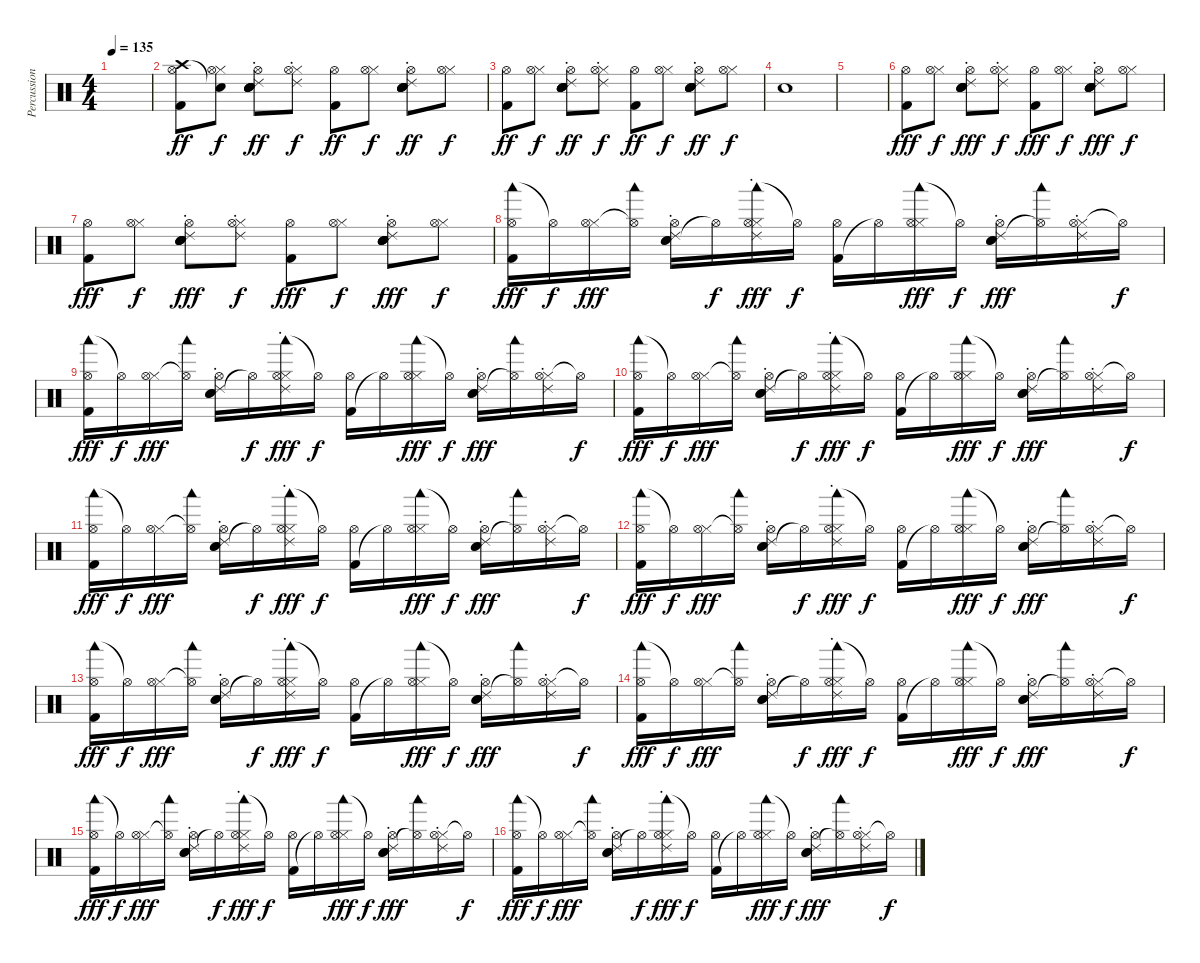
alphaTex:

\track ("Percussion" "Percussion") {instrument percussion}
\staff {score}
\articulation defaults
\ts (4 4)
\tempo 135
\clef neutral
\ks c
|
("Kick (hit) 2" "Crash high (hit)" "Hi-Hat (open)").8{dy ff} ("Hi-Hat (closed)" "Snare (hit)"{t} "Hi-Hat (open)").8{dy f} ("Snare (hit) 2" "Ride (choke) 2" "Hand Clap (hit)" "Hand Clap (hit)" "Hand Clap (hit)" "Hi-Hat (open)").8{dy ff} ("Hi-Hat (closed)" "Ride (choke) 2" "Hi-Hat (open)").8{dy f} ("Kick (hit) 2" "Hi-Hat (open)").8{dy ff} ("Hi-Hat (closed)" "Hi-Hat (open)").8{dy f} ("Snare (hit) 2" "Ride (choke) 2" "Hand Clap (hit)" "Hand Clap (hit)" "Hand Clap (hit)" "Hi-Hat (open)").8{dy ff} ("Hi-Hat (closed)" "Hi-Hat (open)").8{dy f} |
("Kick (hit) 2" "Hi-Hat (open)").8{dy ff} ("Hi-Hat (closed)" "Hi-Hat (open)").8{dy f} ("Snare (hit) 2" "Ride (choke) 2" "Hand Clap (hit)" "Hand Clap (hit)" "Hand Clap (hit)" "Hi-Hat (open)").8{dy ff} ("Hi-Hat (closed)" "Ride (choke) 2" "Hi-Hat (open)").8{dy f} ("Kick (hit) 2" "Hi-Hat (open)").8{dy ff} ("Hi-Hat (closed)" "Hi-Hat (open)").8{dy f} ("Snare (hit) 2" "Ride (choke) 2" "Hand Clap (hit)" "Hand Clap (hit)" "Hand Clap (hit)" "Hi-Hat (open)").8{dy ff} ("Hi-Hat (closed)" "Hi-Hat (open)").8{dy f} |
"Snare (hit) 2".1 |
|
("Kick (hit) 2" "Hi-Hat (open)").8{dy fff} ("Hi-Hat (closed)" "Hi-Hat (open)").8{dy f} ("Snare (hit) 2" "Ride (choke) 2" "Hand Clap (hit)" "Hand Clap (hit)" "Hand Clap (hit)" "Hi-Hat (open)").8{dy fff} ("Hi-Hat (closed)" "Ride (choke) 2" "Hi-Hat (open)").8{dy f} ("Kick (hit) 2" "Hi-Hat (open)").8{dy fff} ("Hi-Hat (closed)" "Hi-Hat (open)").8{dy f} ("Snare (hit) 2" "Ride (choke) 2" "Hand Clap (hit)" "Hand Clap (hit)" "Hand Clap (hit)" "Hi-Hat (open)").8{dy fff} ("Hi-Hat (closed)" "Hi-Hat (open)").8{dy f} |
("Kick (hit) 2" "Hi-Hat (open)").8{dy fff} ("Hi-Hat (closed)" "Hi-Hat (open)").8{dy f} ("Snare (hit) 2" "Ride (choke) 2" "Hand Clap (hit)" "Hand Clap (hit)" "Hand Clap (hit)" "Hi-Hat (open)").8{dy fff} ("Hi-Hat (closed)" "Ride (choke) 2" "Hi-Hat (open)").8{dy f} ("Kick (hit) 2" "Hi-Hat (open)").8{dy fff} ("Hi-Hat (closed)" "Hi-Hat (open)").8{dy f} ("Snare (hit) 2" "Ride (choke) 2" "Hand Clap (hit)" "Hand Clap (hit)" "Hand Clap (hit)" "Hi-Hat (open)").8{dy fff} ("Hi-Hat (closed)" "Hi-Hat (open)").8{dy f} |
("Woodblock low (hit)" "Kick (hit) 2" "Hi-Hat (open)").16{dy fff} "Hi-Hat (open)"{t}.16{dy f} ("Hi-Hat (closed)" "Hi-Hat (open)").16{dy fff} ("Woodblock low (hit)" "Hi-Hat (open)"{t}).16 ("Snare (hit) 2" "Ride (choke) 2" "Hand Clap (hit)" "Hi-Hat (open)").16 "Hi-Hat (open)"{t}.16{dy f} ("Woodblock low (hit)" "Hi-Hat (closed)" "Ride (choke) 2" "Hi-Hat (open)").16{dy fff} "Hi-Hat (open)"{t}.16{dy f} ("Kick (hit) 2" "Hi-Hat (open)").16 "Hi-Hat (open)"{t}.16 ("Woodblock low (hit)" "Hi-Hat (closed)" "Hi-Hat (open)").16{dy fff} "Hi-Hat (open)"{t}.16{dy f} ("Snare (hit) 2" "Ride (choke) 2" "Hand Clap (hit)" "Hi-Hat (open)").16{dy fff} ("Woodblock low (hit)" "Hi-Hat (open)"{t}).16 ("Hi-Hat (closed)" "Ride (choke) 2" "Hi-Hat (open)").16 "Hi-Hat (open)"{t}.16{dy f} |
("Woodblock low (hit)" "Kick (hit) 2" "Hi-Hat (open)").16{dy fff} "Hi-Hat (open)"{t}.16{dy f} ("Hi-Hat (closed)" "Hi-Hat (open)").16{dy fff} ("Woodblock low (hit)" "Hi-Hat (open)"{t}).16 ("Snare (hit) 2" "Ride (choke) 2" "Hand Clap (hit)" "Hi-Hat (open)").16 "Hi-Hat (open)"{t}.16{dy f} ("Woodblock low (hit)" "Hi-Hat (closed)" "Ride (choke) 2" "Hi-Hat (open)").16{dy fff} "Hi-Hat (open)"{t}.16{dy f} ("Kick (hit) 2" "Hi-Hat (open)").16 "Hi-Hat (open)"{t}.16 ("Woodblock low (hit)" "Hi-Hat (closed)" "Hi-Hat (open)").16{dy fff} "Hi-Hat (open)"{t}.16{dy f} ("Snare (hit) 2" "Ride (choke) 2" "Hand Clap (hit)" "Hi-Hat (open)").16{dy fff} ("Woodblock low (hit)" "Hi-Hat (open)"{t}).16 ("Hi-Hat (closed)" "Ride (choke) 2" "Hi-Hat (open)").16 "Hi-Hat (open)"{t}.16{dy f} |
("Woodblock low (hit)" "Kick (hit) 2" "Hi-Hat (open)").16{dy fff} "Hi-Hat (open)"{t}.16{dy f} ("Hi-Hat (closed)" "Hi-Hat (open)").16{dy fff} ("Woodblock low (hit)" "Hi-Hat (open)"{t}).16 ("Snare (hit) 2" "Ride (choke) 2" "Hand Clap (hit)" "Hi-Hat (open)").16 "Hi-Hat (open)"{t}.16{dy f} ("Woodblock low (hit)" "Hi-Hat (closed)" "Ride (choke) 2" "Hi-Hat (open)").16{dy fff} "Hi-Hat (open)"{t}.16{dy f} ("Kick (hit) 2" "Hi-Hat (open)").16 "Hi-Hat (open)"{t}.16 ("Woodblock low (hit)" "Hi-Hat (closed)" "Hi-Hat (open)").16{dy fff} "Hi-Hat (open)"{t}.16{dy f} ("Snare (hit) 2" "Ride (choke) 2" "Hand Clap (hit)" "Hi-Hat (open)").16{dy fff} ("Woodblock low (hit)" "Hi-Hat (open)"{t}).16 ("Hi-Hat (closed)" "Ride (choke) 2" "Hi-Hat (open)").16 "Hi-Hat (open)"{t}.16{dy f} |
("Woodblock low (hit)" "Kick (hit) 2" "Hi-Hat (open)").16{dy fff} "Hi-Hat (open)"{t}.16{dy f} ("Hi-Hat (closed)" "Hi-Hat (open)").16{dy fff} ("Woodblock low (hit)" "Hi-Hat (open)"{t}).16 ("Snare (hit) 2" "Ride (choke) 2" "Hand Clap (hit)" "Hi-Hat (open)").16 "Hi-Hat (open)"{t}.16{dy f} ("Woodblock low (hit)" "Hi-Hat (closed)" "Ride (choke) 2" "Hi-Hat (open)").16{dy fff} "Hi-Hat (open)"{t}.16{dy f} ("Kick (hit) 2" "Hi-Hat (open)").16 "Hi-Hat (open)"{t}.16 ("Woodblock low (hit)" "Hi-Hat (closed)" "Hi-Hat (open)").16{dy fff} "Hi-Hat (open)"{t}.16{dy f} ("Snare (hit) 2" "Ride (choke) 2" "Hand Clap (hit)" "Hi-Hat (open)").16{dy fff} ("Woodblock low (hit)" "Hi-Hat (open)"{t}).16 ("Hi-Hat (closed)" "Ride (choke) 2" "Hi-Hat (open)").16 "Hi-Hat (open)"{t}.16{dy f} |
("Woodblock low (hit)" "Kick (hit) 2" "Hi-Hat (open)").16{dy fff} "Hi-Hat (open)"{t}.16{dy f} ("Hi-Hat (closed)" "Hi-Hat (open)").16{dy fff} ("Woodblock low (hit)" "Hi-Hat (open)"{t}).16 ("Snare (hit) 2" "Ride (choke) 2" "Hand Clap (hit)" "Hi-Hat (open)").16 "Hi-Hat (open)"{t}.16{dy f} ("Woodblock low (hit)" "Hi-Hat (closed)" "Ride (choke) 2" "Hi-Hat (open)").16{dy fff} "Hi-Hat (open)"{t}.16{dy f} ("Kick (hit) 2" "Hi-Hat (open)").16 "Hi-Hat (open)"{t}.16 ("Woodblock low (hit)" "Hi-Hat (closed)" "Hi-Hat (open)").16{dy fff} "Hi-Hat (open)"{t}.16{dy f} ("Snare (hit) 2" "Ride (choke) 2" "Hand Clap (hit)" "Hi-Hat (open)").16{dy fff} ("Woodblock low (hit)" "Hi-Hat (open)"{t}).16 ("Hi-Hat (closed)" "Ride (choke) 2" "Hi-Hat (open)").16 "Hi-Hat (open)"{t}.16{dy f} |
("Woodblock low (hit)" "Kick (hit) 2" "Hi-Hat (open)").16{dy fff} "Hi-Hat (open)"{t}.16{dy f} ("Hi-Hat (closed)" "Hi-Hat (open)").16{dy fff} ("Woodblock low (hit)" "Hi-Hat (open)"{t}).16 ("Snare (hit) 2" "Ride (choke) 2" "Hand Clap (hit)" "Hi-Hat (open)").16 "Hi-Hat (open)"{t}.16{dy f} ("Woodblock low (hit)" "Hi-Hat (closed)" "Ride (choke) 2" "Hi-Hat (open)").16{dy fff} "Hi-Hat (open)"{t}.16{dy f} ("Kick (hit) 2" "Hi-Hat (open)").16 "Hi-Hat (open)"{t}.16 ("Woodblock low (hit)" "Hi-Hat (closed)" "Hi-Hat (open)").16{dy fff} "Hi-Hat (open)"{t}.16{dy f} ("Snare (hit) 2" "Ride (choke) 2" "Hand Clap (hit)" "Hi-Hat (open)").16{dy fff} ("Woodblock low (hit)" "Hi-Hat (open)"{t}).16 ("Hi-Hat (closed)" "Ride (choke) 2" "Hi-Hat (open)").16 "Hi-Hat (open)"{t}.16{dy f} |
("Woodblock low (hit)" "Kick (hit) 2" "Hi-Hat (open)").16{dy fff} "Hi-Hat (open)"{t}.16{dy f} ("Hi-Hat (closed)" "Hi-Hat (open)").16{dy fff} ("Woodblock low (hit)" "Hi-Hat (open)"{t}).16 ("Snare (hit) 2" "Ride (choke) 2" "Hand Clap (hit)" "Hi-Hat (open)").16 "Hi-Hat (open)"{t}.16{dy f} ("Woodblock low (hit)" "Hi-Hat (closed)" "Ride (choke) 2" "Hi-Hat (open)").16{dy fff} "Hi-Hat (open)"{t}.16{dy f} ("Kick (hit) 2" "Hi-Hat (open)").16 "Hi-Hat (open)"{t}.16 ("Woodblock low (hit)" "Hi-Hat (closed)" "Hi-Hat (open)").16{dy fff} "Hi-Hat (open)"{t}.16{dy f} ("Snare (hit) 2" "Ride (choke) 2" "Hand Clap (hit)" "Hi-Hat (open)").16{dy fff} ("Woodblock low (hit)" "Hi-Hat (open)"{t}).16 ("Hi-Hat (closed)" "Ride (choke) 2" "Hi-Hat (open)").16 "Hi-Hat (open)"{t}.16{dy f} |
("Woodblock low (hit)" "Kick (hit) 2" "Hi-Hat (open)").16{dy fff} "Hi-Hat (open)"{t}.16{dy f} ("Hi-Hat (closed)" "Hi-Hat (open)").16{dy fff} ("Woodblock low (hit)" "Hi-Hat (open)"{t}).16 ("Snare (hit) 2" "Ride (choke) 2" "Hand Clap (hit)" "Hi-Hat (open)").16 "Hi-Hat (open)"{t}.16{dy f} ("Woodblock low (hit)" "Hi-Hat (closed)" "Ride (choke) 2" "Hi-Hat (open)").16{dy fff} "Hi-Hat (open)"{t}.16{dy f} ("Kick (hit) 2" "Hi-Hat (open)").16 "Hi-Hat (open)"{t}.16 ("Woodblock low (hit)" "Hi-Hat (closed)" "Hi-Hat (open)").16{dy fff} "Hi-Hat (open)"{t}.16{dy f} ("Snare (hit) 2" "Ride (choke) 2" "Hand Clap (hit)" "Hi-Hat (open)").16{dy fff} ("Woodblock low (hit)" "Hi-Hat (open)"{t}).16 ("Hi-Hat (closed)" "Ride (choke) 2" "Hi-Hat (open)").16 "Hi-Hat (open)"{t}.16{dy f} |
("Woodblock low (hit)" "Kick (hit) 2" "Hi-Hat (open)").16{dy fff} "Hi-Hat (open)"{t}.16{dy f} ("Hi-Hat (closed)" "Hi-Hat (open)").16{dy fff} ("Woodblock low (hit)" "Hi-Hat (open)"{t}).16 ("Snare (hit) 2" "Ride (choke) 2" "Hand Clap (hit)" "Hi-Hat (open)").16 "Hi-Hat (open)"{t}.16{dy f} ("Woodblock low (hit)" "Hi-Hat (closed)" "Ride (choke) 2" "Hi-Hat (open)").16{dy fff} "Hi-Hat (open)"{t}.16{dy f} ("Kick (hit) 2" "Hi-Hat (open)").16 "Hi-Hat (open)"{t}.16 ("Woodblock low (hit)" "Hi-Hat (closed)" "Hi-Hat (open)").16{dy fff} "Hi-Hat (open)"{t}.16{dy f} ("Snare (hit) 2" "Ride (choke) 2" "Hand Clap (hit)" "Hi-Hat (open)").16{dy fff} ("Woodblock low (hit)" "Hi-Hat (open)"{t}).16 ("Hi-Hat (closed)" "Ride (choke) 2" "Hi-Hat (open)").16 "Hi-Hat (open)"{t}.16{dy f}
